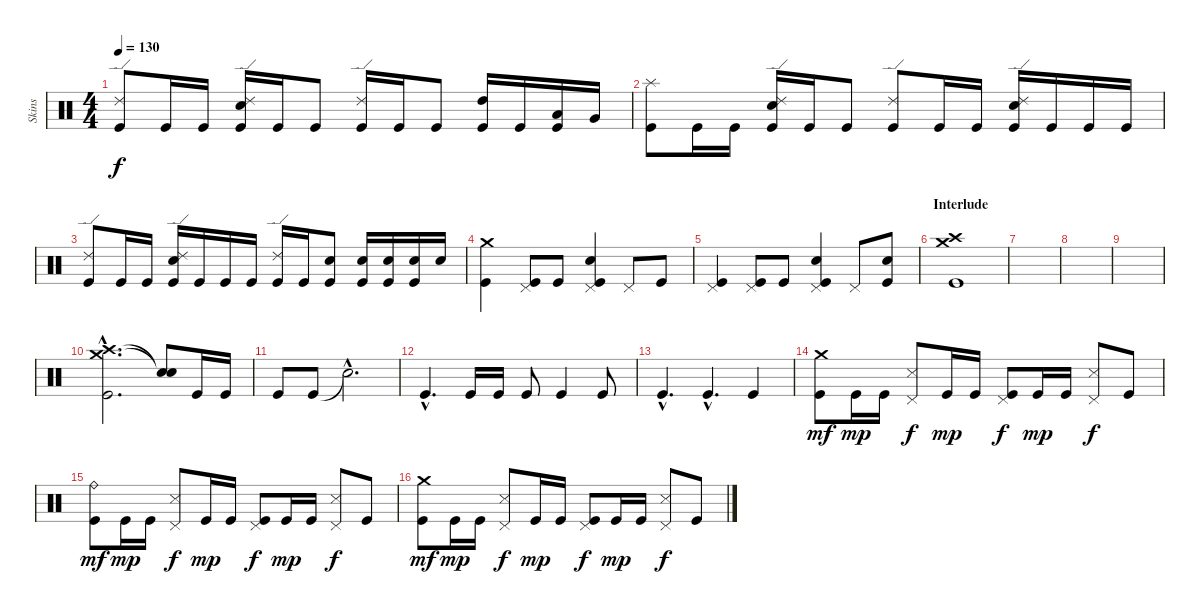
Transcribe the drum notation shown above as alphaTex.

\track ("Skins" "Skins") {instrument percussion}
\staff {score}
\articulation defaults
\ts (4 4)
\tempo 130
\clef neutral
\ks c
("Ride (edge) 2" "Kick (hit)").8{dy f} "Kick (hit)".16 "Kick (hit)".16 ("Ride (edge) 2" "Electric Snare (hit)" "Kick (hit)").16 "Kick (hit)".16 "Kick (hit)".8 ("Ride (edge) 2" "Kick (hit)").16 "Kick (hit)".16 "Kick (hit)".8 ("High Tom (hit)" "Kick (hit)").16 "Kick (hit)".16 ("Low Tom (hit)" "Kick (hit)").16 "Very Low Tom (hit)".16 |
("Splash (hit)" "Kick (hit)").8 "Kick (hit)".16 "Kick (hit)".16 ("Ride (edge) 2" "Electric Snare (hit)" "Kick (hit)").16 "Kick (hit)".16 "Kick (hit)".8 ("Ride (edge) 2" "Kick (hit)").8 "Kick (hit)".16 "Kick (hit)".16 ("Ride (edge) 2" "Electric Snare (hit)" "Kick (hit)").16 "Kick (hit)".16 "Kick (hit)".16 "Kick (hit)".16 |
("Ride (edge) 2" "Kick (hit)").8 "Kick (hit)".16 "Kick (hit)".16 ("Ride (edge) 2" "Electric Snare (hit)" "Kick (hit)").16 "Kick (hit)".16 "Kick (hit)".16 "Kick (hit)".16 ("Ride (edge) 2" "Kick (hit)").16 "Kick (hit)".16 ("Electric Snare (hit)" "Kick (hit)").8 ("Electric Snare (hit)" "Kick (hit)").16 ("Electric Snare (hit)" "Kick (hit)").16 ("Electric Snare (hit)" "Kick (hit)").16 "Electric Snare (hit)".16 |
("Crash medium (hit)" "Kick (hit)").4 ("Pedal Hi-Hat (hit)" "Kick (hit)").8 "Kick (hit)".8 ("Pedal Hi-Hat (hit)" "Electric Snare (hit)" "Kick (hit)").4 "Pedal Hi-Hat (hit)".8 "Kick (hit)".8 |
("Pedal Hi-Hat (hit)" "Kick (hit)").4 ("Pedal Hi-Hat (hit)" "Kick (hit)").8 "Kick (hit)".8 ("Pedal Hi-Hat (hit)" "Electric Snare (hit)" "Kick (hit)").4 "Pedal Hi-Hat (hit)".8 ("Electric Snare (hit)" "Kick (hit)").8 |
\section ("" "Interlude")
("Crash medium (hit)" "Crash high (hit)" "Kick (hit)").1 |
|
|
|
("Crash high (hit)"{hac} "Crash medium (hit)"{hac} "Kick (hit)"{hac}).2{d} ("Snare (hit)"{t} "Snare (hit)"{t}).8 "Kick (hit)".16 "Kick (hit)".16 |
"Kick (hit)".8 "Kick (hit)".8 "Snare (hit)"{hac t}.2{d} |
"Kick (hit)"{hac}.4{d} "Kick (hit)".16 "Kick (hit)".16 "Kick (hit)".8 "Kick (hit)".4 "Kick (hit)".8 |
"Kick (hit)"{hac}.4{d} "Kick (hit)"{hac}.4{d} "Kick (hit)".4 |
("Crash medium (hit)" "Kick (hit)").8{dy mf} "Kick (hit)".16{dy mp} "Kick (hit)".16 ("Pedal Hi-Hat (hit)" "Snare (side stick) 3").8{dy f} "Kick (hit)".16{dy mp} "Kick (hit)".16 ("Pedal Hi-Hat (hit)" "Kick (hit)").8{dy f} "Kick (hit)".16{dy mp} "Kick (hit)".16 ("Pedal Hi-Hat (hit)" "Snare (side stick) 3").8{dy f} "Kick (hit)".8 |
("Ride (bell)" "Kick (hit)").8{dy mf} "Kick (hit)".16{dy mp} "Kick (hit)".16 ("Pedal Hi-Hat (hit)" "Snare (side stick) 3").8{dy f} "Kick (hit)".16{dy mp} "Kick (hit)".16 ("Pedal Hi-Hat (hit)" "Kick (hit)").8{dy f} "Kick (hit)".16{dy mp} "Kick (hit)".16 ("Pedal Hi-Hat (hit)" "Snare (side stick) 3").8{dy f} "Kick (hit)".8 |
("Crash medium (hit)" "Kick (hit)").8{dy mf} "Kick (hit)".16{dy mp} "Kick (hit)".16 ("Pedal Hi-Hat (hit)" "Snare (side stick) 3").8{dy f} "Kick (hit)".16{dy mp} "Kick (hit)".16 ("Pedal Hi-Hat (hit)" "Kick (hit)").8{dy f} "Kick (hit)".16{dy mp} "Kick (hit)".16 ("Pedal Hi-Hat (hit)" "Snare (side stick) 3").8{dy f} "Kick (hit)".8
